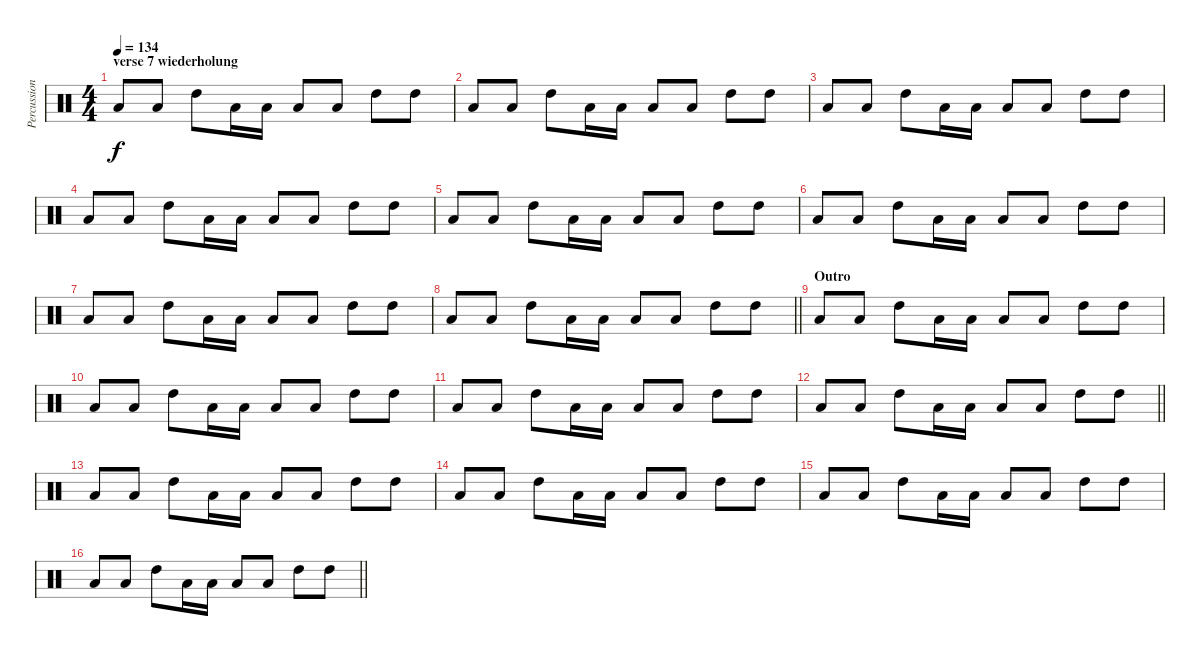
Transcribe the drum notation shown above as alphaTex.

\track ("Percussion" "Percussion") {instrument percussion}
\staff {score}
\articulation defaults
\ts (4 4)
\section ("" "verse 7 wiederholung")
\tempo 134
\clef neutral
\ks c "Low Tom (hit)".8{dy f} "Low Tom (hit)".8 "High Tom (hit)".8 "Low Tom (hit)".16 "Low Tom (hit)".16 "Low Tom (hit)".8 "Low Tom (hit)".8 "High Tom (hit)".8 "High Tom (hit)".8
|
"Low Tom (hit)".8 "Low Tom (hit)".8 "High Tom (hit)".8 "Low Tom (hit)".16 "Low Tom (hit)".16 "Low Tom (hit)".8 "Low Tom (hit)".8 "High Tom (hit)".8 "High Tom (hit)".8 |
"Low Tom (hit)".8 "Low Tom (hit)".8 "High Tom (hit)".8 "Low Tom (hit)".16 "Low Tom (hit)".16 "Low Tom (hit)".8 "Low Tom (hit)".8 "High Tom (hit)".8 "High Tom (hit)".8 |
"Low Tom (hit)".8 "Low Tom (hit)".8 "High Tom (hit)".8 "Low Tom (hit)".16 "Low Tom (hit)".16 "Low Tom (hit)".8 "Low Tom (hit)".8 "High Tom (hit)".8 "High Tom (hit)".8 |
"Low Tom (hit)".8 "Low Tom (hit)".8 "High Tom (hit)".8 "Low Tom (hit)".16 "Low Tom (hit)".16 "Low Tom (hit)".8 "Low Tom (hit)".8 "High Tom (hit)".8 "High Tom (hit)".8 |
"Low Tom (hit)".8 "Low Tom (hit)".8 "High Tom (hit)".8 "Low Tom (hit)".16 "Low Tom (hit)".16 "Low Tom (hit)".8 "Low Tom (hit)".8 "High Tom (hit)".8 "High Tom (hit)".8 |
"Low Tom (hit)".8 "Low Tom (hit)".8 "High Tom (hit)".8 "Low Tom (hit)".16 "Low Tom (hit)".16 "Low Tom (hit)".8 "Low Tom (hit)".8 "High Tom (hit)".8 "High Tom (hit)".8 |
\barLineRight lightlight "Low Tom (hit)".8 "Low Tom (hit)".8 "High Tom (hit)".8 "Low Tom (hit)".16 "Low Tom (hit)".16 "Low Tom (hit)".8 "Low Tom (hit)".8 "High Tom (hit)".8 "High Tom (hit)".8
|
\section ("" "Outro")
"Low Tom (hit)".8 "Low Tom (hit)".8 "High Tom (hit)".8 "Low Tom (hit)".16 "Low Tom (hit)".16 "Low Tom (hit)".8 "Low Tom (hit)".8 "High Tom (hit)".8 "High Tom (hit)".8 |
"Low Tom (hit)".8 "Low Tom (hit)".8 "High Tom (hit)".8 "Low Tom (hit)".16 "Low Tom (hit)".16 "Low Tom (hit)".8 "Low Tom (hit)".8 "High Tom (hit)".8 "High Tom (hit)".8 |
"Low Tom (hit)".8 "Low Tom (hit)".8 "High Tom (hit)".8 "Low Tom (hit)".16 "Low Tom (hit)".16 "Low Tom (hit)".8 "Low Tom (hit)".8 "High Tom (hit)".8 "High Tom (hit)".8 |
\barLineRight lightlight "Low Tom (hit)".8 "Low Tom (hit)".8 "High Tom (hit)".8 "Low Tom (hit)".16 "Low Tom (hit)".16 "Low Tom (hit)".8 "Low Tom (hit)".8 "High Tom (hit)".8 "High Tom (hit)".8
|
"Low Tom (hit)".8 "Low Tom (hit)".8 "High Tom (hit)".8 "Low Tom (hit)".16 "Low Tom (hit)".16 "Low Tom (hit)".8 "Low Tom (hit)".8 "High Tom (hit)".8 "High Tom (hit)".8 |
"Low Tom (hit)".8 "Low Tom (hit)".8 "High Tom (hit)".8 "Low Tom (hit)".16 "Low Tom (hit)".16 "Low Tom (hit)".8 "Low Tom (hit)".8 "High Tom (hit)".8 "High Tom (hit)".8 |
"Low Tom (hit)".8 "Low Tom (hit)".8 "High Tom (hit)".8 "Low Tom (hit)".16 "Low Tom (hit)".16 "Low Tom (hit)".8 "Low Tom (hit)".8 "High Tom (hit)".8 "High Tom (hit)".8 |
\barLineRight lightlight "Low Tom (hit)".8 "Low Tom (hit)".8 "High Tom (hit)".8 "Low Tom (hit)".16 "Low Tom (hit)".16 "Low Tom (hit)".8 "Low Tom (hit)".8 "High Tom (hit)".8 "High Tom (hit)".8
